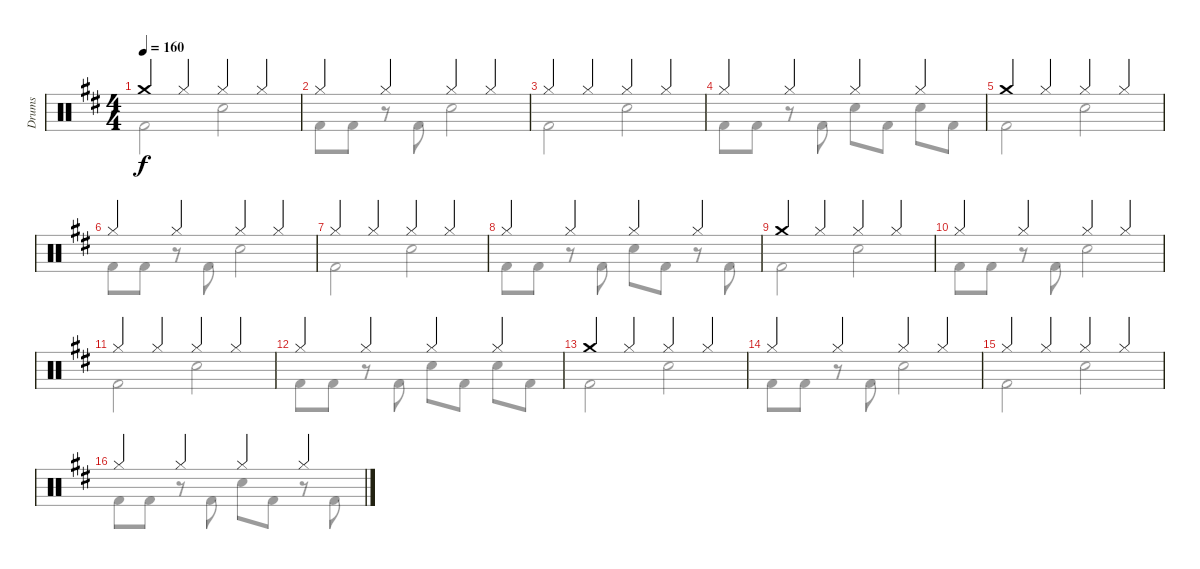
\track ("Drums" "Drums") {instrument percussion}
\staff {score}
\articulation defaults
\voice
\ts (4 4)
\tempo 160
\clef neutral
\ks d "Crash medium (hit)".4{dy f} "Hi-Hat (closed)".4 "Hi-Hat (closed)".4 "Hi-Hat (closed)".4
|
"Hi-Hat (closed)".4 "Hi-Hat (closed)".4 "Hi-Hat (closed)".4 "Hi-Hat (closed)".4 |
"Hi-Hat (closed)".4 "Hi-Hat (closed)".4 "Hi-Hat (closed)".4 "Hi-Hat (closed)".4 |
"Hi-Hat (closed)".4 "Hi-Hat (closed)".4 "Hi-Hat (closed)".4 "Hi-Hat (closed)".4 |
"Crash medium (hit)".4 "Hi-Hat (closed)".4 "Hi-Hat (closed)".4 "Hi-Hat (closed)".4 |
"Hi-Hat (closed)".4 "Hi-Hat (closed)".4 "Hi-Hat (closed)".4 "Hi-Hat (closed)".4 |
"Hi-Hat (closed)".4 "Hi-Hat (closed)".4 "Hi-Hat (closed)".4 "Hi-Hat (closed)".4 |
"Hi-Hat (closed)".4 "Hi-Hat (closed)".4 "Hi-Hat (closed)".4 "Hi-Hat (closed)".4 |
"Crash medium (hit)".4 "Hi-Hat (closed)".4 "Hi-Hat (closed)".4 "Hi-Hat (closed)".4 |
"Hi-Hat (closed)".4 "Hi-Hat (closed)".4 "Hi-Hat (closed)".4 "Hi-Hat (closed)".4 |
"Hi-Hat (closed)".4 "Hi-Hat (closed)".4 "Hi-Hat (closed)".4 "Hi-Hat (closed)".4 |
"Hi-Hat (closed)".4 "Hi-Hat (closed)".4 "Hi-Hat (closed)".4 "Hi-Hat (closed)".4 |
"Crash medium (hit)".4 "Hi-Hat (closed)".4 "Hi-Hat (closed)".4 "Hi-Hat (closed)".4 |
"Hi-Hat (closed)".4 "Hi-Hat (closed)".4 "Hi-Hat (closed)".4 "Hi-Hat (closed)".4 |
"Hi-Hat (closed)".4 "Hi-Hat (closed)".4 "Hi-Hat (closed)".4 "Hi-Hat (closed)".4 |
"Hi-Hat (closed)".4 "Hi-Hat (closed)".4 "Hi-Hat (closed)".4 "Hi-Hat (closed)".4
\voice
\clef neutral
\ottava regular
\simile none
\ks d "Kick (hit) 2".2{dy f} "Snare (hit) 2".2
|
"Kick (hit) 2".8 "Kick (hit) 2".8 r.8 "Kick (hit) 2".8 "Snare (hit) 2".2 |
"Kick (hit) 2".2 "Snare (hit) 2".2 |
"Kick (hit) 2".8 "Kick (hit) 2".8 r.8 "Kick (hit) 2".8 "Snare (hit) 2".8 "Kick (hit) 2".8 "Snare (hit) 2".8 "Kick (hit) 2".8 |
"Kick (hit) 2".2 "Snare (hit) 2".2 |
"Kick (hit) 2".8 "Kick (hit) 2".8 r.8 "Kick (hit) 2".8 "Snare (hit) 2".2 |
"Kick (hit) 2".2 "Snare (hit) 2".2 |
"Kick (hit) 2".8 "Kick (hit) 2".8 r.8 "Kick (hit) 2".8 "Snare (hit) 2".8 "Kick (hit) 2".8 r.8 "Kick (hit) 2".8 |
"Kick (hit) 2".2 "Snare (hit) 2".2 |
"Kick (hit) 2".8 "Kick (hit) 2".8 r.8 "Kick (hit) 2".8 "Snare (hit) 2".2 |
"Kick (hit) 2".2 "Snare (hit) 2".2 |
"Kick (hit) 2".8 "Kick (hit) 2".8 r.8 "Kick (hit) 2".8 "Snare (hit) 2".8 "Kick (hit) 2".8 "Snare (hit) 2".8 "Kick (hit) 2".8 |
"Kick (hit) 2".2 "Snare (hit) 2".2 |
"Kick (hit) 2".8 "Kick (hit) 2".8 r.8 "Kick (hit) 2".8 "Snare (hit) 2".2 |
"Kick (hit) 2".2 "Snare (hit) 2".2 |
"Kick (hit) 2".8 "Kick (hit) 2".8 r.8 "Kick (hit) 2".8 "Snare (hit) 2".8 "Kick (hit) 2".8 r.8 "Kick (hit) 2".8
